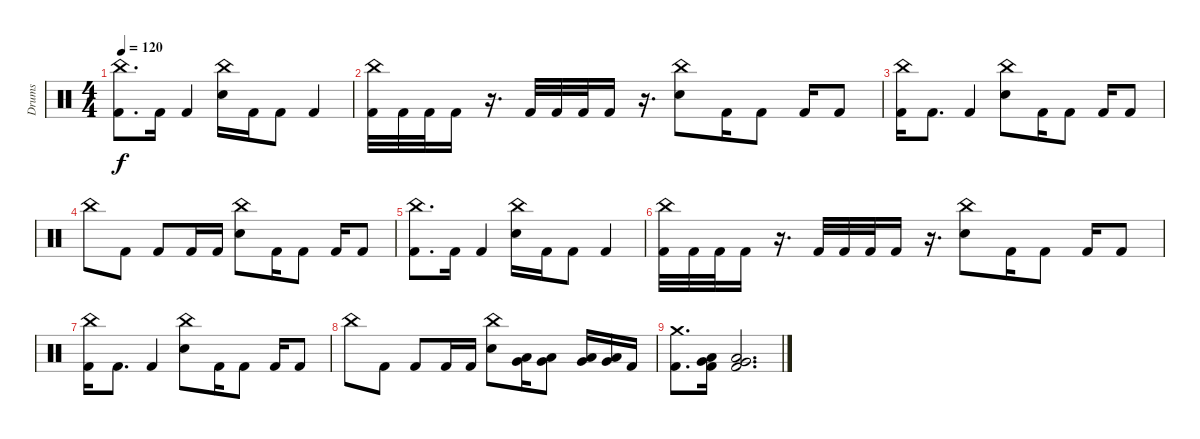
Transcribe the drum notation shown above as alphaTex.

\track ("Drums" "Drums") {instrument percussion}
\staff {score}
\articulation defaults
\ts (4 4)
\tempo 120
\clef neutral
\ks c
("China (hit)" "Kick (hit) 2").8{d dy f volume 16} "Kick (hit) 2".16 "Kick (hit) 2".4 ("China (hit)" "Electric Snare (hit)").16 "Kick (hit) 2".16 "Kick (hit) 2".8 "Kick (hit) 2".4 |
("China (hit)" "Kick (hit) 2").32 "Kick (hit) 2".32 "Kick (hit) 2".32 "Kick (hit) 2".16 r.16{d} "Kick (hit) 2".32 "Kick (hit) 2".32 "Kick (hit) 2".32 "Kick (hit) 2".16 r.16{d} ("China (hit)" "Electric Snare (hit)").8 "Kick (hit) 2".16 "Kick (hit) 2".8 "Kick (hit) 2".16 "Kick (hit) 2".8 |
("China (hit)" "Kick (hit) 2").16 "Kick (hit) 2".8{d} "Kick (hit) 2".4 ("China (hit)" "Electric Snare (hit)").8 "Kick (hit) 2".16 "Kick (hit) 2".8 "Kick (hit) 2".16 "Kick (hit) 2".8 |
"China (hit)".8 "Kick (hit) 2".8 "Kick (hit) 2".8 "Kick (hit) 2".16 "Kick (hit) 2".16 ("China (hit)" "Electric Snare (hit)").8 "Kick (hit) 2".16 "Kick (hit) 2".8 "Kick (hit) 2".16 "Kick (hit) 2".8 |
("China (hit)" "Kick (hit) 2").8{d} "Kick (hit) 2".16 "Kick (hit) 2".4 ("China (hit)" "Electric Snare (hit)").16 "Kick (hit) 2".16 "Kick (hit) 2".8 "Kick (hit) 2".4 |
("China (hit)" "Kick (hit) 2").32 "Kick (hit) 2".32 "Kick (hit) 2".32 "Kick (hit) 2".16 r.16{d} "Kick (hit) 2".32 "Kick (hit) 2".32 "Kick (hit) 2".32 "Kick (hit) 2".16 r.16{d} ("China (hit)" "Electric Snare (hit)").8 "Kick (hit) 2".16 "Kick (hit) 2".8 "Kick (hit) 2".16 "Kick (hit) 2".8 |
("China (hit)" "Kick (hit) 2").16 "Kick (hit) 2".8{d} "Kick (hit) 2".4 ("China (hit)" "Electric Snare (hit)").8 "Kick (hit) 2".16 "Kick (hit) 2".8 "Kick (hit) 2".16 "Kick (hit) 2".8 |
"China (hit)".8 "Kick (hit) 2".8 "Kick (hit) 2".8 "Kick (hit) 2".16 "Kick (hit) 2".16 ("China (hit)" "Electric Snare (hit)").8 ("Low Tom (hit)" "Very Low Tom (hit)").16 ("Low Tom (hit)" "Very Low Tom (hit)").8 ("Very Low Tom (hit)" "Low Floor Tom (hit)").16 ("Very Low Tom (hit)" "Low Floor Tom (hit)").16 "Kick (hit) 2".16 |
("Crash medium (hit)" "Kick (hit) 2").8{d} ("Very Low Tom (hit)" "Low Floor Tom (hit)" "Kick (hit) 2").16 ("Very Low Tom (hit)" "Low Floor Tom (hit)" "Kick (hit) 2").2{d}
